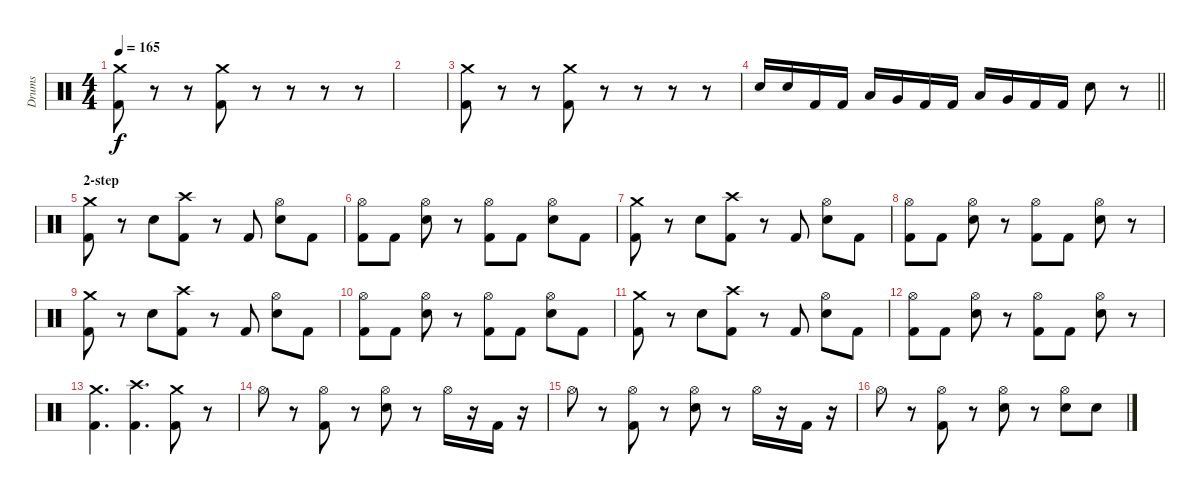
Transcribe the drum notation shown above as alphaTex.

\track ("Drums" "Drums") {instrument percussion}
\staff {score}
\articulation defaults
\ts (4 4)
\tempo 165
\clef neutral
\ks c
("Crash medium (hit)" "Kick (hit) 2").8{dy f} r.8 r.8 ("Crash medium (hit)" "Kick (hit) 2").8 r.8 r.8 r.8 r.8 |
|
("Crash medium (hit)" "Kick (hit) 2").8 r.8 r.8 ("Crash medium (hit)" "Kick (hit) 2").8 r.8 r.8 r.8 r.8 |
\barLineRight lightlight "Electric Snare (hit)".16 "Electric Snare (hit)".16 "Kick (hit) 2".16 "Kick (hit) 2".16 "Low Tom (hit)".16 "Very Low Tom (hit)".16 "Kick (hit) 2".16 "Kick (hit) 2".16 "Low Tom (hit)".16 "Very Low Tom (hit)".16 "Kick (hit) 2".16 "Kick (hit) 2".16 "Electric Snare (hit)".8
r.8 |
\section ("" "2-step")
("Crash medium (hit)" "Kick (hit) 2").8 r.8 "Electric Snare (hit)".8 ("Crash high (hit)" "Kick (hit) 2").8 r.8 "Kick (hit) 2".8 ("Hi-Hat (open)" "Electric Snare (hit)").8 "Kick (hit) 2".8 |
("Hi-Hat (open)" "Kick (hit) 2").8 "Kick (hit) 2".8 ("Hi-Hat (open)" "Electric Snare (hit)").8 r.8 ("Hi-Hat (open)" "Kick (hit) 2").8 "Kick (hit) 2".8 ("Hi-Hat (open)" "Electric Snare (hit)").8 "Kick (hit) 2".8 |
("Crash medium (hit)" "Kick (hit) 2").8 r.8 "Electric Snare (hit)".8 ("Crash high (hit)" "Kick (hit) 2").8 r.8 "Kick (hit) 2".8 ("Hi-Hat (open)" "Electric Snare (hit)").8 "Kick (hit) 2".8 |
("Hi-Hat (open)" "Kick (hit) 2").8 "Kick (hit) 2".8 ("Hi-Hat (open)" "Electric Snare (hit)").8 r.8 ("Hi-Hat (open)" "Kick (hit) 2").8 "Kick (hit) 2".8 ("Hi-Hat (open)" "Electric Snare (hit)").8 r.8 |
("Crash medium (hit)" "Kick (hit) 2").8 r.8 "Electric Snare (hit)".8 ("Crash high (hit)" "Kick (hit) 2").8 r.8 "Kick (hit) 2".8 ("Hi-Hat (open)" "Electric Snare (hit)").8 "Kick (hit) 2".8 |
("Hi-Hat (open)" "Kick (hit) 2").8 "Kick (hit) 2".8 ("Hi-Hat (open)" "Electric Snare (hit)").8 r.8 ("Hi-Hat (open)" "Kick (hit) 2").8 "Kick (hit) 2".8 ("Hi-Hat (open)" "Electric Snare (hit)").8 "Kick (hit) 2".8 |
("Crash medium (hit)" "Kick (hit) 2").8 r.8 "Electric Snare (hit)".8 ("Crash high (hit)" "Kick (hit) 2").8 r.8 "Kick (hit) 2".8 ("Hi-Hat (open)" "Electric Snare (hit)").8 "Kick (hit) 2".8 |
("Hi-Hat (open)" "Kick (hit) 2").8 "Kick (hit) 2".8 ("Hi-Hat (open)" "Electric Snare (hit)").8 r.8 ("Hi-Hat (open)" "Kick (hit) 2").8 "Kick (hit) 2".8 ("Hi-Hat (open)" "Electric Snare (hit)").8 r.8 |
("Crash medium (hit)" "Kick (hit) 2").4{d} ("Crash high (hit)" "Kick (hit) 2").4{d} ("Crash medium (hit)" "Kick (hit) 2").8 r.8 |
"Hi-Hat (open)".8 r.8 ("Hi-Hat (open)" "Kick (hit) 2").8 r.8 ("Hi-Hat (open)" "Electric Snare (hit)").8 r.8 "Hi-Hat (open)".16 r.16 "Kick (hit) 2".16 r.16 |
"Hi-Hat (open)".8 r.8 ("Hi-Hat (open)" "Kick (hit) 2").8 r.8 ("Hi-Hat (open)" "Electric Snare (hit)").8 r.8 "Hi-Hat (open)".16 r.16 "Kick (hit) 2".16 r.16 |
"Hi-Hat (open)".8 r.8 ("Hi-Hat (open)" "Kick (hit) 2").8 r.8 ("Hi-Hat (open)" "Electric Snare (hit)").8 r.8 ("Hi-Hat (open)" "Electric Snare (hit)").8 "Electric Snare (hit)".8
